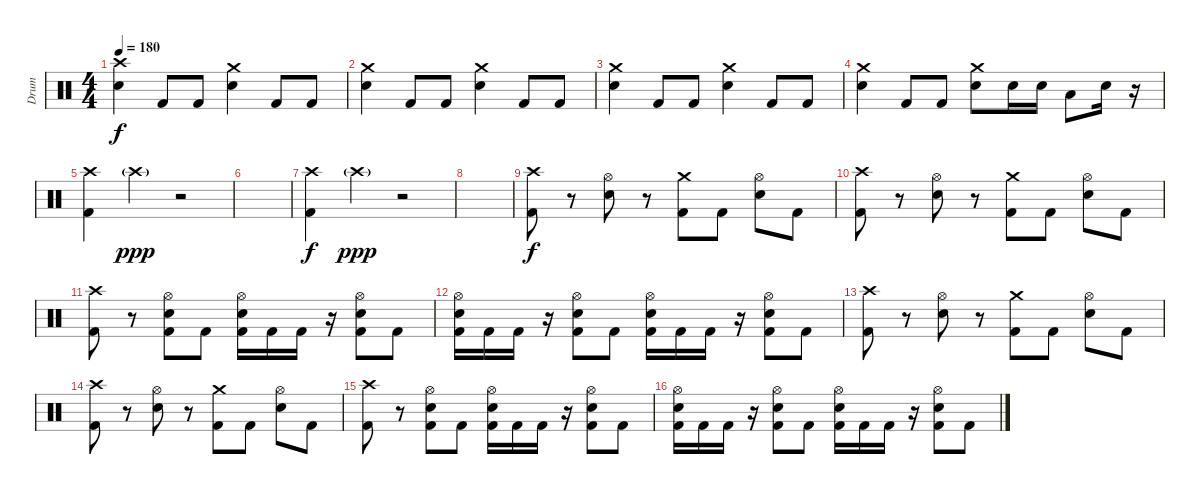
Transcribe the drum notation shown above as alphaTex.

\track ("Drum" "Drum") {instrument percussion}
\staff {score}
\articulation defaults
\ts (4 4)
\tempo 180
\clef neutral
\ks c
("Crash high (hit)" "Electric Snare (hit)").4{dy f} "Kick (hit) 2".8 "Kick (hit) 2".8 ("Crash medium (hit)" "Electric Snare (hit)").4 "Kick (hit) 2".8 "Kick (hit) 2".8 |
("Crash medium (hit)" "Electric Snare (hit)").4 "Kick (hit) 2".8 "Kick (hit) 2".8 ("Crash medium (hit)" "Electric Snare (hit)").4 "Kick (hit) 2".8 "Kick (hit) 2".8 |
("Crash medium (hit)" "Electric Snare (hit)").4 "Kick (hit) 2".8 "Kick (hit) 2".8 ("Crash medium (hit)" "Electric Snare (hit)").4 "Kick (hit) 2".8 "Kick (hit) 2".8 |
("Crash medium (hit)" "Electric Snare (hit)").4 "Kick (hit) 2".8 "Kick (hit) 2".8 ("Crash medium (hit)" "Electric Snare (hit)").8 "Electric Snare (hit)".16 "Electric Snare (hit)".16 "Low Tom (hit)".8 "Electric Snare (hit)".16 r.16 |
("Crash high (hit)" "Kick (hit) 2").4 "Crash high (hit)"{g}.4{dy ppp} r.2 |
|
("Crash high (hit)" "Kick (hit) 2").4{dy f} "Crash high (hit)"{g}.4{dy ppp} r.2 |
|
("Crash high (hit)" "Kick (hit) 2").8{dy f} r.8 ("Hi-Hat (open)" "Electric Snare (hit)").8 r.8 ("Crash medium (hit)" "Kick (hit) 2").8 "Kick (hit) 2".8 ("Hi-Hat (open)" "Electric Snare (hit)").8 "Kick (hit) 2".8 |
("Crash high (hit)" "Kick (hit) 2").8 r.8 ("Hi-Hat (open)" "Electric Snare (hit)").8 r.8 ("Crash medium (hit)" "Kick (hit) 2").8 "Kick (hit) 2".8 ("Hi-Hat (open)" "Electric Snare (hit)").8 "Kick (hit) 2".8 |
("Crash high (hit)" "Kick (hit) 2").8 r.8 ("Hi-Hat (open)" "Electric Snare (hit)" "Kick (hit) 2").8 "Kick (hit) 2".8 ("Hi-Hat (open)" "Electric Snare (hit)" "Kick (hit) 2").16 "Kick (hit) 2".16 "Kick (hit) 2".16 r.16 ("Hi-Hat (open)" "Electric Snare (hit)" "Kick (hit) 2").8 "Kick (hit) 2".8 |
("Hi-Hat (open)" "Electric Snare (hit)" "Kick (hit) 2").16 "Kick (hit) 2".16 "Kick (hit) 2".16 r.16 ("Hi-Hat (open)" "Electric Snare (hit)" "Kick (hit) 2").8 "Kick (hit) 2".8 ("Hi-Hat (open)" "Electric Snare (hit)" "Kick (hit) 2").16 "Kick (hit) 2".16 "Kick (hit) 2".16 r.16 ("Hi-Hat (open)" "Electric Snare (hit)" "Kick (hit) 2").8 "Kick (hit) 2".8 |
("Crash high (hit)" "Kick (hit) 2").8 r.8 ("Hi-Hat (open)" "Electric Snare (hit)").8 r.8 ("Crash medium (hit)" "Kick (hit) 2").8 "Kick (hit) 2".8 ("Hi-Hat (open)" "Electric Snare (hit)").8 "Kick (hit) 2".8 |
("Crash high (hit)" "Kick (hit) 2").8 r.8 ("Hi-Hat (open)" "Electric Snare (hit)").8 r.8 ("Crash medium (hit)" "Kick (hit) 2").8 "Kick (hit) 2".8 ("Hi-Hat (open)" "Electric Snare (hit)").8 "Kick (hit) 2".8 |
("Crash high (hit)" "Kick (hit) 2").8 r.8 ("Hi-Hat (open)" "Electric Snare (hit)" "Kick (hit) 2").8 "Kick (hit) 2".8 ("Hi-Hat (open)" "Electric Snare (hit)" "Kick (hit) 2").16 "Kick (hit) 2".16 "Kick (hit) 2".16 r.16 ("Hi-Hat (open)" "Electric Snare (hit)" "Kick (hit) 2").8 "Kick (hit) 2".8 |
("Hi-Hat (open)" "Electric Snare (hit)" "Kick (hit) 2").16 "Kick (hit) 2".16 "Kick (hit) 2".16 r.16 ("Hi-Hat (open)" "Electric Snare (hit)" "Kick (hit) 2").8 "Kick (hit) 2".8 ("Hi-Hat (open)" "Electric Snare (hit)" "Kick (hit) 2").16 "Kick (hit) 2".16 "Kick (hit) 2".16 r.16 ("Hi-Hat (open)" "Electric Snare (hit)" "Kick (hit) 2").8 "Kick (hit) 2".8
